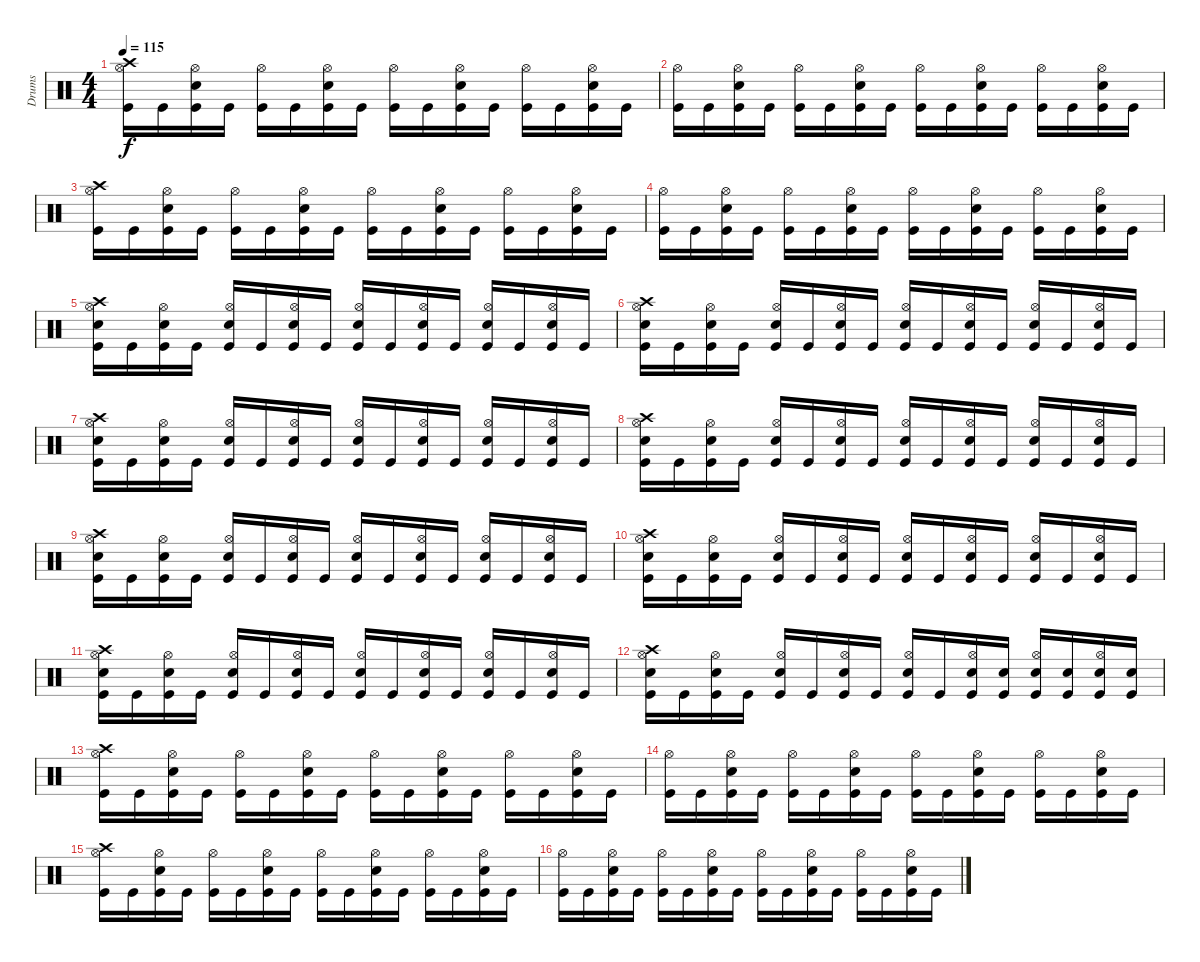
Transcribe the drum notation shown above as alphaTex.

\track ("Drums" "Drums") {instrument percussion}
\staff {score}
\articulation defaults
\ts (4 4)
\tempo 115
\clef neutral
\ks c
("Crash high (hit)" "Kick (hit)" "Hi-Hat (open)").16{dy f} "Kick (hit)".16 ("Kick (hit)" "Electric Snare (hit)" "Hi-Hat (open)").16 "Kick (hit)".16 ("Kick (hit)" "Hi-Hat (open)").16 "Kick (hit)".16 ("Kick (hit)" "Electric Snare (hit)" "Hi-Hat (open)").16 "Kick (hit)".16 ("Hi-Hat (open)" "Kick (hit)").16 "Kick (hit)".16 ("Kick (hit)" "Hi-Hat (open)" "Electric Snare (hit)").16 "Kick (hit)".16 ("Hi-Hat (open)" "Kick (hit)").16 "Kick (hit)".16 ("Kick (hit)" "Hi-Hat (open)" "Electric Snare (hit)").16 "Kick (hit)".16 |
("Kick (hit)" "Hi-Hat (open)").16 "Kick (hit)".16 ("Kick (hit)" "Electric Snare (hit)" "Hi-Hat (open)").16 "Kick (hit)".16 ("Kick (hit)" "Hi-Hat (open)").16 "Kick (hit)".16 ("Kick (hit)" "Electric Snare (hit)" "Hi-Hat (open)").16 "Kick (hit)".16 ("Hi-Hat (open)" "Kick (hit)").16 "Kick (hit)".16 ("Kick (hit)" "Hi-Hat (open)" "Electric Snare (hit)").16 "Kick (hit)".16 ("Hi-Hat (open)" "Kick (hit)").16 "Kick (hit)".16 ("Kick (hit)" "Hi-Hat (open)" "Electric Snare (hit)").16 "Kick (hit)".16 |
("Crash high (hit)" "Kick (hit)" "Hi-Hat (open)").16 "Kick (hit)".16 ("Kick (hit)" "Electric Snare (hit)" "Hi-Hat (open)").16 "Kick (hit)".16 ("Kick (hit)" "Hi-Hat (open)").16 "Kick (hit)".16 ("Kick (hit)" "Electric Snare (hit)" "Hi-Hat (open)").16 "Kick (hit)".16 ("Hi-Hat (open)" "Kick (hit)").16 "Kick (hit)".16 ("Kick (hit)" "Hi-Hat (open)" "Electric Snare (hit)").16 "Kick (hit)".16 ("Hi-Hat (open)" "Kick (hit)").16 "Kick (hit)".16 ("Kick (hit)" "Hi-Hat (open)" "Electric Snare (hit)").16 "Kick (hit)".16 |
("Kick (hit)" "Hi-Hat (open)").16 "Kick (hit)".16 ("Kick (hit)" "Electric Snare (hit)" "Hi-Hat (open)").16 "Kick (hit)".16 ("Kick (hit)" "Hi-Hat (open)").16 "Kick (hit)".16 ("Kick (hit)" "Electric Snare (hit)" "Hi-Hat (open)").16 "Kick (hit)".16 ("Hi-Hat (open)" "Kick (hit)").16 "Kick (hit)".16 ("Kick (hit)" "Hi-Hat (open)" "Electric Snare (hit)").16 "Kick (hit)".16 ("Hi-Hat (open)" "Kick (hit)").16 "Kick (hit)".16 ("Kick (hit)" "Hi-Hat (open)" "Electric Snare (hit)").16 "Kick (hit)".16 |
("Electric Snare (hit)" "Crash high (hit)" "Kick (hit)" "Hi-Hat (open)").16 "Kick (hit)".16 ("Kick (hit)" "Electric Snare (hit)" "Hi-Hat (open)").16 "Kick (hit)".16 ("Electric Snare (hit)" "Kick (hit)" "Hi-Hat (open)").16 "Kick (hit)".16 ("Kick (hit)" "Electric Snare (hit)" "Hi-Hat (open)").16 "Kick (hit)".16 ("Electric Snare (hit)" "Hi-Hat (open)" "Kick (hit)").16 "Kick (hit)".16 ("Kick (hit)" "Hi-Hat (open)" "Electric Snare (hit)").16 "Kick (hit)".16 ("Electric Snare (hit)" "Hi-Hat (open)" "Kick (hit)").16 "Kick (hit)".16 ("Kick (hit)" "Hi-Hat (open)" "Electric Snare (hit)").16 "Kick (hit)".16 |
("Electric Snare (hit)" "Crash high (hit)" "Kick (hit)" "Hi-Hat (open)").16 "Kick (hit)".16 ("Kick (hit)" "Electric Snare (hit)" "Hi-Hat (open)").16 "Kick (hit)".16 ("Electric Snare (hit)" "Kick (hit)" "Hi-Hat (open)").16 "Kick (hit)".16 ("Kick (hit)" "Electric Snare (hit)" "Hi-Hat (open)").16 "Kick (hit)".16 ("Electric Snare (hit)" "Hi-Hat (open)" "Kick (hit)").16 "Kick (hit)".16 ("Kick (hit)" "Hi-Hat (open)" "Electric Snare (hit)").16 "Kick (hit)".16 ("Electric Snare (hit)" "Hi-Hat (open)" "Kick (hit)").16 "Kick (hit)".16 ("Kick (hit)" "Hi-Hat (open)" "Electric Snare (hit)").16 "Kick (hit)".16 |
("Electric Snare (hit)" "Crash high (hit)" "Kick (hit)" "Hi-Hat (open)").16 "Kick (hit)".16 ("Kick (hit)" "Electric Snare (hit)" "Hi-Hat (open)").16 "Kick (hit)".16 ("Electric Snare (hit)" "Kick (hit)" "Hi-Hat (open)").16 "Kick (hit)".16 ("Kick (hit)" "Electric Snare (hit)" "Hi-Hat (open)").16 "Kick (hit)".16 ("Electric Snare (hit)" "Hi-Hat (open)" "Kick (hit)").16 "Kick (hit)".16 ("Kick (hit)" "Hi-Hat (open)" "Electric Snare (hit)").16 "Kick (hit)".16 ("Electric Snare (hit)" "Hi-Hat (open)" "Kick (hit)").16 "Kick (hit)".16 ("Kick (hit)" "Hi-Hat (open)" "Electric Snare (hit)").16 "Kick (hit)".16 |
("Electric Snare (hit)" "Crash high (hit)" "Kick (hit)" "Hi-Hat (open)").16 "Kick (hit)".16 ("Kick (hit)" "Electric Snare (hit)" "Hi-Hat (open)").16 "Kick (hit)".16 ("Electric Snare (hit)" "Kick (hit)" "Hi-Hat (open)").16 "Kick (hit)".16 ("Kick (hit)" "Electric Snare (hit)" "Hi-Hat (open)").16 "Kick (hit)".16 ("Electric Snare (hit)" "Hi-Hat (open)" "Kick (hit)").16 "Kick (hit)".16 ("Kick (hit)" "Hi-Hat (open)" "Electric Snare (hit)").16 "Kick (hit)".16 ("Electric Snare (hit)" "Hi-Hat (open)" "Kick (hit)").16 "Kick (hit)".16 ("Kick (hit)" "Hi-Hat (open)" "Electric Snare (hit)").16 "Kick (hit)".16 |
("Electric Snare (hit)" "Crash high (hit)" "Kick (hit)" "Hi-Hat (open)").16 "Kick (hit)".16 ("Kick (hit)" "Electric Snare (hit)" "Hi-Hat (open)").16 "Kick (hit)".16 ("Electric Snare (hit)" "Kick (hit)" "Hi-Hat (open)").16 "Kick (hit)".16 ("Kick (hit)" "Electric Snare (hit)" "Hi-Hat (open)").16 "Kick (hit)".16 ("Electric Snare (hit)" "Hi-Hat (open)" "Kick (hit)").16 "Kick (hit)".16 ("Kick (hit)" "Hi-Hat (open)" "Electric Snare (hit)").16 "Kick (hit)".16 ("Electric Snare (hit)" "Hi-Hat (open)" "Kick (hit)").16 "Kick (hit)".16 ("Kick (hit)" "Hi-Hat (open)" "Electric Snare (hit)").16 "Kick (hit)".16 |
("Electric Snare (hit)" "Crash high (hit)" "Kick (hit)" "Hi-Hat (open)").16 "Kick (hit)".16 ("Kick (hit)" "Electric Snare (hit)" "Hi-Hat (open)").16 "Kick (hit)".16 ("Electric Snare (hit)" "Kick (hit)" "Hi-Hat (open)").16 "Kick (hit)".16 ("Kick (hit)" "Electric Snare (hit)" "Hi-Hat (open)").16 "Kick (hit)".16 ("Electric Snare (hit)" "Hi-Hat (open)" "Kick (hit)").16 "Kick (hit)".16 ("Kick (hit)" "Hi-Hat (open)" "Electric Snare (hit)").16 "Kick (hit)".16 ("Electric Snare (hit)" "Hi-Hat (open)" "Kick (hit)").16 "Kick (hit)".16 ("Kick (hit)" "Hi-Hat (open)" "Electric Snare (hit)").16 "Kick (hit)".16 |
("Electric Snare (hit)" "Crash high (hit)" "Kick (hit)" "Hi-Hat (open)").16 "Kick (hit)".16 ("Kick (hit)" "Electric Snare (hit)" "Hi-Hat (open)").16 "Kick (hit)".16 ("Electric Snare (hit)" "Kick (hit)" "Hi-Hat (open)").16 "Kick (hit)".16 ("Kick (hit)" "Electric Snare (hit)" "Hi-Hat (open)").16 "Kick (hit)".16 ("Electric Snare (hit)" "Hi-Hat (open)" "Kick (hit)").16 "Kick (hit)".16 ("Kick (hit)" "Hi-Hat (open)" "Electric Snare (hit)").16 "Kick (hit)".16 ("Electric Snare (hit)" "Hi-Hat (open)" "Kick (hit)").16 "Kick (hit)".16 ("Kick (hit)" "Hi-Hat (open)" "Electric Snare (hit)").16 "Kick (hit)".16 |
("Electric Snare (hit)" "Crash high (hit)" "Kick (hit)" "Hi-Hat (open)").16 "Kick (hit)".16 ("Kick (hit)" "Electric Snare (hit)" "Hi-Hat (open)").16 "Kick (hit)".16 ("Electric Snare (hit)" "Kick (hit)" "Hi-Hat (open)").16 "Kick (hit)".16 ("Kick (hit)" "Electric Snare (hit)" "Hi-Hat (open)").16 "Kick (hit)".16 ("Electric Snare (hit)" "Hi-Hat (open)" "Kick (hit)").16 "Kick (hit)".16 ("Kick (hit)" "Hi-Hat (open)" "Electric Snare (hit)").16 ("Electric Snare (hit)" "Kick (hit)").16 ("Electric Snare (hit)" "Hi-Hat (open)" "Kick (hit)").16 ("Electric Snare (hit)" "Kick (hit)").16 ("Kick (hit)" "Hi-Hat (open)" "Electric Snare (hit)").16 ("Electric Snare (hit)" "Kick (hit)").16 |
("Crash high (hit)" "Kick (hit)" "Hi-Hat (open)").16 "Kick (hit)".16 ("Kick (hit)" "Electric Snare (hit)" "Hi-Hat (open)").16 "Kick (hit)".16 ("Kick (hit)" "Hi-Hat (open)").16 "Kick (hit)".16 ("Kick (hit)" "Electric Snare (hit)" "Hi-Hat (open)").16 "Kick (hit)".16 ("Hi-Hat (open)" "Kick (hit)").16 "Kick (hit)".16 ("Kick (hit)" "Hi-Hat (open)" "Electric Snare (hit)").16 "Kick (hit)".16 ("Hi-Hat (open)" "Kick (hit)").16 "Kick (hit)".16 ("Kick (hit)" "Hi-Hat (open)" "Electric Snare (hit)").16 "Kick (hit)".16 |
("Kick (hit)" "Hi-Hat (open)").16 "Kick (hit)".16 ("Kick (hit)" "Electric Snare (hit)" "Hi-Hat (open)").16 "Kick (hit)".16 ("Kick (hit)" "Hi-Hat (open)").16 "Kick (hit)".16 ("Kick (hit)" "Electric Snare (hit)" "Hi-Hat (open)").16 "Kick (hit)".16 ("Hi-Hat (open)" "Kick (hit)").16 "Kick (hit)".16 ("Kick (hit)" "Hi-Hat (open)" "Electric Snare (hit)").16 "Kick (hit)".16 ("Hi-Hat (open)" "Kick (hit)").16 "Kick (hit)".16 ("Kick (hit)" "Hi-Hat (open)" "Electric Snare (hit)").16 "Kick (hit)".16 |
("Crash high (hit)" "Kick (hit)" "Hi-Hat (open)").16 "Kick (hit)".16 ("Kick (hit)" "Electric Snare (hit)" "Hi-Hat (open)").16 "Kick (hit)".16 ("Kick (hit)" "Hi-Hat (open)").16 "Kick (hit)".16 ("Kick (hit)" "Electric Snare (hit)" "Hi-Hat (open)").16 "Kick (hit)".16 ("Hi-Hat (open)" "Kick (hit)").16 "Kick (hit)".16 ("Kick (hit)" "Hi-Hat (open)" "Electric Snare (hit)").16 "Kick (hit)".16 ("Hi-Hat (open)" "Kick (hit)").16 "Kick (hit)".16 ("Kick (hit)" "Hi-Hat (open)" "Electric Snare (hit)").16 "Kick (hit)".16 |
("Hi-Hat (open)" "Kick (hit)").16 "Kick (hit)".16 ("Kick (hit)" "Electric Snare (hit)" "Hi-Hat (open)").16 "Kick (hit)".16 ("Kick (hit)" "Hi-Hat (open)").16 "Kick (hit)".16 ("Kick (hit)" "Electric Snare (hit)" "Hi-Hat (open)").16 "Kick (hit)".16 ("Hi-Hat (open)" "Kick (hit)").16 "Kick (hit)".16 ("Kick (hit)" "Hi-Hat (open)" "Electric Snare (hit)").16 "Kick (hit)".16 ("Hi-Hat (open)" "Kick (hit)").16 "Kick (hit)".16 ("Kick (hit)" "Hi-Hat (open)" "Electric Snare (hit)").16 "Kick (hit)".16
